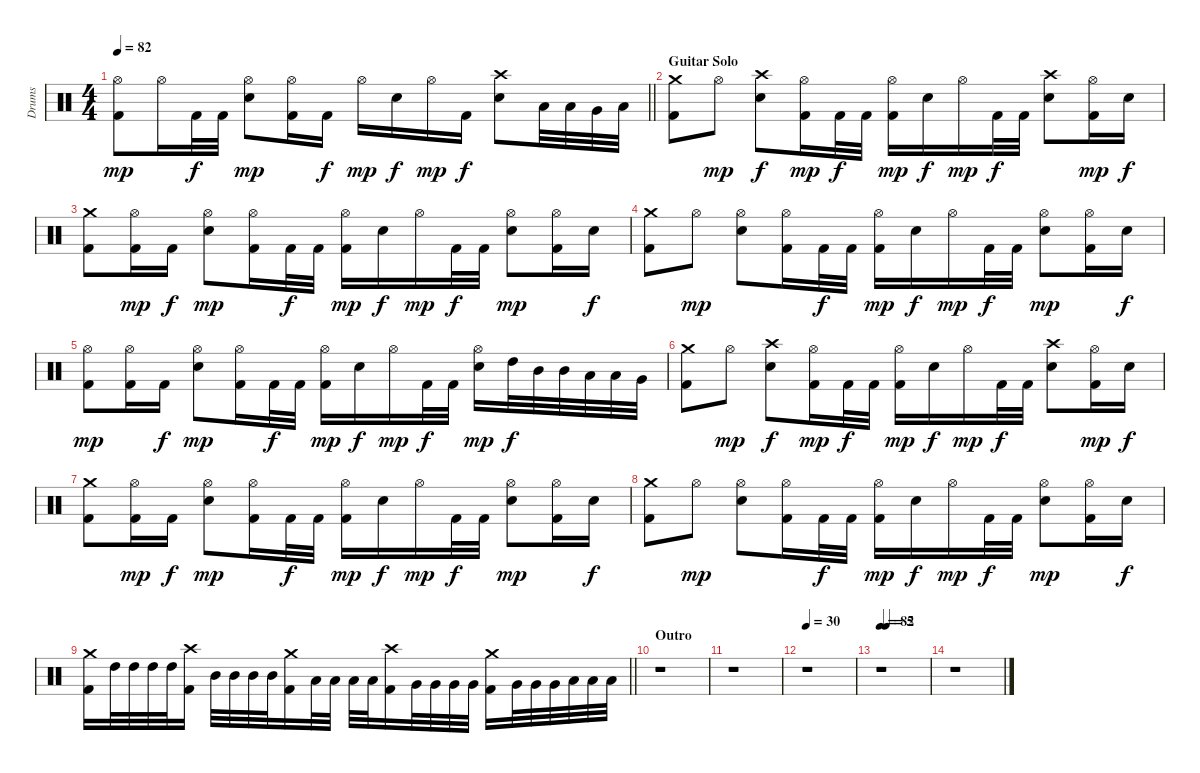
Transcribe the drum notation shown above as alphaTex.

\track ("Drums" "Drums") {instrument percussion}
\staff {score}
\articulation defaults
\ts (4 4)
\tempo 82
\clef neutral
\barLineRight lightlight
\ks c
("Hi-Hat (open)" "Kick (hit) 2").8{dy mp} "Hi-Hat (open)".16 "Kick (hit) 2".32{dy f} "Kick (hit) 2".32 ("Hi-Hat (open)" "Snare (hit) 2").8{dy mp} ("Hi-Hat (open)" "Kick (hit) 2").16 "Kick (hit) 2".16{dy f} "Hi-Hat (open)".16{dy mp} "Snare (hit) 2".16{dy f} "Hi-Hat (open)".16{dy mp} "Kick (hit) 2".16{dy f} ("Crash high (hit)" "Snare (hit) 2").8 "Low Tom (hit)".32 "Low Tom (hit)".32 "Very Low Tom (hit)".32 "Low Floor Tom (hit)".32 |
\section ("" "Guitar Solo")
("Crash medium (hit)" "Kick (hit) 2").8 "Hi-Hat (open)".8{dy mp} ("Crash high (hit)" "Snare (hit) 2").8{dy f} ("Hi-Hat (open)" "Kick (hit) 2").16{dy mp} "Kick (hit) 2".32{dy f} "Kick (hit) 2".32 ("Hi-Hat (open)" "Kick (hit) 2").16{dy mp} "Snare (hit) 2".16{dy f} "Hi-Hat (open)".16{dy mp} "Kick (hit) 2".32{dy f} "Kick (hit) 2".32 ("Crash high (hit)" "Snare (hit) 2").8 ("Hi-Hat (open)" "Kick (hit) 2").16{dy mp} "Snare (hit) 2".16{dy f} |
("Crash medium (hit)" "Kick (hit) 2").8 ("Hi-Hat (open)" "Kick (hit) 2").16{dy mp} "Kick (hit) 2".16{dy f} ("Hi-Hat (open)" "Snare (hit) 2").8{dy mp} ("Hi-Hat (open)" "Kick (hit) 2").16 "Kick (hit) 2".32{dy f} "Kick (hit) 2".32 ("Hi-Hat (open)" "Kick (hit) 2").16{dy mp} "Snare (hit) 2".16{dy f} "Hi-Hat (open)".16{dy mp} "Kick (hit) 2".32{dy f} "Kick (hit) 2".32 ("Hi-Hat (open)" "Snare (hit) 2").8{dy mp} ("Hi-Hat (open)" "Kick (hit) 2").16 "Snare (hit) 2".16{dy f} |
("Crash medium (hit)" "Kick (hit) 2").8 "Hi-Hat (open)".8{dy mp} ("Hi-Hat (open)" "Snare (hit) 2").8 ("Hi-Hat (open)" "Kick (hit) 2").16 "Kick (hit) 2".32{dy f} "Kick (hit) 2".32 ("Hi-Hat (open)" "Kick (hit) 2").16{dy mp} "Snare (hit) 2".16{dy f} "Hi-Hat (open)".16{dy mp} "Kick (hit) 2".32{dy f} "Kick (hit) 2".32 ("Hi-Hat (open)" "Snare (hit) 2").8{dy mp} ("Hi-Hat (open)" "Kick (hit) 2").16 "Snare (hit) 2".16{dy f} |
("Hi-Hat (open)" "Kick (hit) 2").8{dy mp} ("Hi-Hat (open)" "Kick (hit) 2").16 "Kick (hit) 2".16{dy f} ("Hi-Hat (open)" "Snare (hit) 2").8{dy mp} ("Hi-Hat (open)" "Kick (hit) 2").16 "Kick (hit) 2".32{dy f} "Kick (hit) 2".32 ("Hi-Hat (open)" "Kick (hit) 2").16{dy mp} "Snare (hit) 2".16{dy f} "Hi-Hat (open)".16{dy mp} "Kick (hit) 2".32{dy f} "Kick (hit) 2".32 ("Hi-Hat (open)" "Snare (hit) 2").16{dy mp} "High Tom (hit)".32{dy f} "Mid Tom (hit)".32 "Mid Tom (hit)".32 "Low Tom (hit)".32 "Low Tom (hit)".32 "Very Low Tom (hit)".32 |
("Crash medium (hit)" "Kick (hit) 2").8 "Hi-Hat (open)".8{dy mp} ("Crash high (hit)" "Snare (hit) 2").8{dy f} ("Hi-Hat (open)" "Kick (hit) 2").16{dy mp} "Kick (hit) 2".32{dy f} "Kick (hit) 2".32 ("Hi-Hat (open)" "Kick (hit) 2").16{dy mp} "Snare (hit) 2".16{dy f} "Hi-Hat (open)".16{dy mp} "Kick (hit) 2".32{dy f} "Kick (hit) 2".32 ("Crash high (hit)" "Snare (hit) 2").8 ("Hi-Hat (open)" "Kick (hit) 2").16{dy mp} "Snare (hit) 2".16{dy f} |
("Crash medium (hit)" "Kick (hit) 2").8 ("Hi-Hat (open)" "Kick (hit) 2").16{dy mp} "Kick (hit) 2".16{dy f} ("Hi-Hat (open)" "Snare (hit) 2").8{dy mp} ("Hi-Hat (open)" "Kick (hit) 2").16 "Kick (hit) 2".32{dy f} "Kick (hit) 2".32 ("Hi-Hat (open)" "Kick (hit) 2").16{dy mp} "Snare (hit) 2".16{dy f} "Hi-Hat (open)".16{dy mp} "Kick (hit) 2".32{dy f} "Kick (hit) 2".32 ("Hi-Hat (open)" "Snare (hit) 2").8{dy mp} ("Hi-Hat (open)" "Kick (hit) 2").16 "Snare (hit) 2".16{dy f} |
("Crash medium (hit)" "Kick (hit) 2").8 "Hi-Hat (open)".8{dy mp} ("Hi-Hat (open)" "Snare (hit) 2").8 ("Hi-Hat (open)" "Kick (hit) 2").16 "Kick (hit) 2".32{dy f} "Kick (hit) 2".32 ("Hi-Hat (open)" "Kick (hit) 2").16{dy mp} "Snare (hit) 2".16{dy f} "Hi-Hat (open)".16{dy mp} "Kick (hit) 2".32{dy f} "Kick (hit) 2".32 ("Hi-Hat (open)" "Snare (hit) 2").8{dy mp} ("Hi-Hat (open)" "Kick (hit) 2").16 "Snare (hit) 2".16{dy f} |
\barLineRight lightlight
("Crash medium (hit)" "Kick (hit) 2").16 "High Tom (hit)".32 "High Tom (hit)".32 "High Tom (hit)".32 "High Tom (hit)".32 ("Crash high (hit)" "Kick (hit) 2").16 "Mid Tom (hit)".32 "Mid Tom (hit)".32 "Mid Tom (hit)".32 "Mid Tom (hit)".32 ("Crash medium (hit)" "Kick (hit) 2").16 "Low Tom (hit)".32 "Low Tom (hit)".32 "Low Tom (hit)".32 "Low Tom (hit)".32 ("Crash high (hit)" "Kick (hit) 2").16 "Very Low Tom (hit)".32 "Very Low Tom (hit)".32 "Very Low Tom (hit)".32 "Very Low Tom (hit)".32 ("Crash medium (hit)" "Kick (hit) 2").16 "Very Low Tom (hit)".32 "Very Low Tom (hit)".32 "Very Low Tom (hit)".32 "Low Floor Tom (hit)".32 "Low Floor Tom (hit)".32 "Low Floor Tom (hit)".32 |
\section ("" "Outro")
r.1 |
r.1 |
\tempo 30
r.1 |
\tempo 82
\tempo (5 0.125)
r.1 |
r.1
